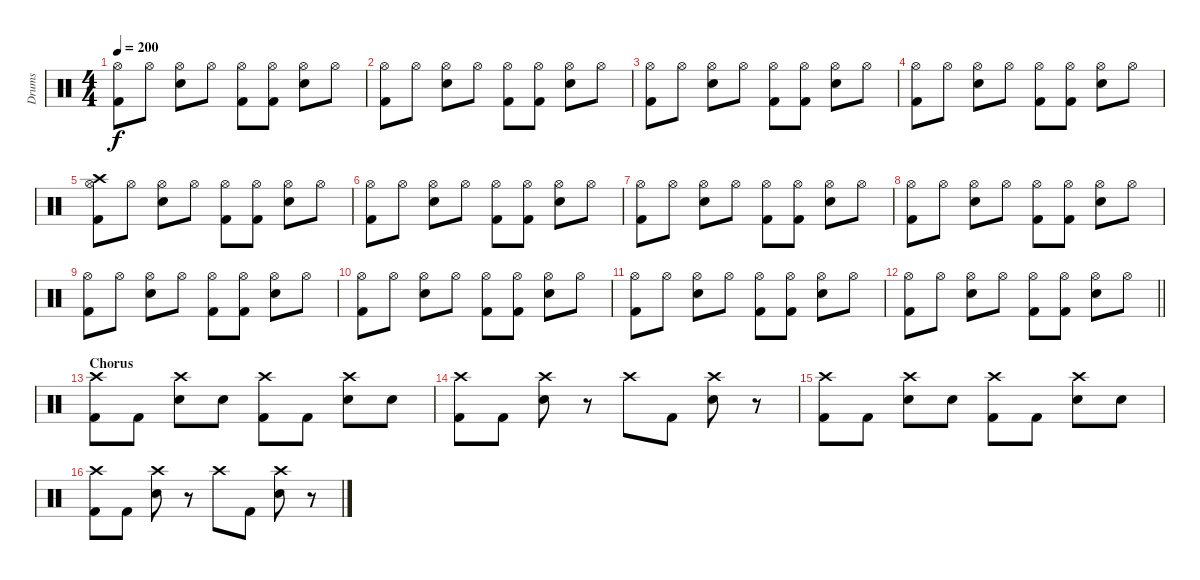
\track ("Drums" "Drums") {instrument percussion}
\staff {score}
\articulation defaults
\ts (4 4)
\tempo 200
\clef neutral
\ks c
("Hi-Hat (open)" "Kick (hit) 2").8{dy f} "Hi-Hat (open)".8 ("Hi-Hat (open)" "Electric Snare (hit)").8 "Hi-Hat (open)".8 ("Hi-Hat (open)" "Kick (hit) 2").8 ("Hi-Hat (open)" "Kick (hit) 2").8 ("Hi-Hat (open)" "Electric Snare (hit)").8 "Hi-Hat (open)".8 |
("Hi-Hat (open)" "Kick (hit) 2").8 "Hi-Hat (open)".8 ("Hi-Hat (open)" "Electric Snare (hit)").8 "Hi-Hat (open)".8 ("Hi-Hat (open)" "Kick (hit) 2").8 ("Hi-Hat (open)" "Kick (hit) 2").8 ("Hi-Hat (open)" "Electric Snare (hit)").8 "Hi-Hat (open)".8 |
("Hi-Hat (open)" "Kick (hit) 2").8 "Hi-Hat (open)".8 ("Hi-Hat (open)" "Electric Snare (hit)").8 "Hi-Hat (open)".8 ("Hi-Hat (open)" "Kick (hit) 2").8 ("Hi-Hat (open)" "Kick (hit) 2").8 ("Hi-Hat (open)" "Electric Snare (hit)").8 "Hi-Hat (open)".8 |
("Hi-Hat (open)" "Kick (hit) 2").8 "Hi-Hat (open)".8 ("Hi-Hat (open)" "Electric Snare (hit)").8 "Hi-Hat (open)".8 ("Hi-Hat (open)" "Kick (hit) 2").8 ("Hi-Hat (open)" "Kick (hit) 2").8 ("Hi-Hat (open)" "Electric Snare (hit)").8 "Hi-Hat (open)".8 |
("Hi-Hat (open)" "Crash high (hit)" "Kick (hit) 2").8 "Hi-Hat (open)".8 ("Hi-Hat (open)" "Electric Snare (hit)").8 "Hi-Hat (open)".8 ("Hi-Hat (open)" "Kick (hit) 2").8 ("Hi-Hat (open)" "Kick (hit) 2").8 ("Hi-Hat (open)" "Electric Snare (hit)").8 "Hi-Hat (open)".8 |
("Hi-Hat (open)" "Kick (hit) 2").8 "Hi-Hat (open)".8 ("Hi-Hat (open)" "Electric Snare (hit)").8 "Hi-Hat (open)".8 ("Hi-Hat (open)" "Kick (hit) 2").8 ("Hi-Hat (open)" "Kick (hit) 2").8 ("Hi-Hat (open)" "Electric Snare (hit)").8 "Hi-Hat (open)".8 |
("Hi-Hat (open)" "Kick (hit) 2").8 "Hi-Hat (open)".8 ("Hi-Hat (open)" "Electric Snare (hit)").8 "Hi-Hat (open)".8 ("Hi-Hat (open)" "Kick (hit) 2").8 ("Hi-Hat (open)" "Kick (hit) 2").8 ("Hi-Hat (open)" "Electric Snare (hit)").8 "Hi-Hat (open)".8 |
("Hi-Hat (open)" "Kick (hit) 2").8 "Hi-Hat (open)".8 ("Hi-Hat (open)" "Electric Snare (hit)").8 "Hi-Hat (open)".8 ("Hi-Hat (open)" "Kick (hit) 2").8 ("Hi-Hat (open)" "Kick (hit) 2").8 ("Hi-Hat (open)" "Electric Snare (hit)").8 "Hi-Hat (open)".8 |
("Hi-Hat (open)" "Kick (hit) 2").8 "Hi-Hat (open)".8 ("Hi-Hat (open)" "Electric Snare (hit)").8 "Hi-Hat (open)".8 ("Hi-Hat (open)" "Kick (hit) 2").8 ("Hi-Hat (open)" "Kick (hit) 2").8 ("Hi-Hat (open)" "Electric Snare (hit)").8 "Hi-Hat (open)".8 |
("Hi-Hat (open)" "Kick (hit) 2").8 "Hi-Hat (open)".8 ("Hi-Hat (open)" "Electric Snare (hit)").8 "Hi-Hat (open)".8 ("Hi-Hat (open)" "Kick (hit) 2").8 ("Hi-Hat (open)" "Kick (hit) 2").8 ("Hi-Hat (open)" "Electric Snare (hit)").8 "Hi-Hat (open)".8 |
("Hi-Hat (open)" "Kick (hit) 2").8 "Hi-Hat (open)".8 ("Hi-Hat (open)" "Electric Snare (hit)").8 "Hi-Hat (open)".8 ("Hi-Hat (open)" "Kick (hit) 2").8 ("Hi-Hat (open)" "Kick (hit) 2").8 ("Hi-Hat (open)" "Electric Snare (hit)").8 "Hi-Hat (open)".8 |
\barLineRight lightlight
("Hi-Hat (open)" "Kick (hit) 2").8 "Hi-Hat (open)".8 ("Hi-Hat (open)" "Electric Snare (hit)").8 "Hi-Hat (open)".8 ("Hi-Hat (open)" "Kick (hit) 2").8 ("Hi-Hat (open)" "Kick (hit) 2").8 ("Hi-Hat (open)" "Electric Snare (hit)").8 "Hi-Hat (open)".8 |
\section ("" "Chorus")
("Crash high (hit)" "Kick (hit) 2").8 "Kick (hit) 2".8 ("Crash high (hit)" "Electric Snare (hit)").8 "Electric Snare (hit)".8 ("Crash high (hit)" "Kick (hit) 2").8 "Kick (hit) 2".8 ("Crash high (hit)" "Electric Snare (hit)").8 "Electric Snare (hit)".8 |
("Crash high (hit)" "Kick (hit) 2").8 "Kick (hit) 2".8 ("Crash high (hit)" "Electric Snare (hit)").8 r.8 "Crash high (hit)".8 "Kick (hit) 2".8 ("Crash high (hit)" "Electric Snare (hit)").8 r.8 |
("Crash high (hit)" "Kick (hit) 2").8 "Kick (hit) 2".8 ("Crash high (hit)" "Electric Snare (hit)").8 "Electric Snare (hit)".8 ("Crash high (hit)" "Kick (hit) 2").8 "Kick (hit) 2".8 ("Crash high (hit)" "Electric Snare (hit)").8 "Electric Snare (hit)".8 |
("Crash high (hit)" "Kick (hit) 2").8 "Kick (hit) 2".8 ("Crash high (hit)" "Electric Snare (hit)").8 r.8 "Crash high (hit)".8 "Kick (hit) 2".8 ("Crash high (hit)" "Electric Snare (hit)").8 r.8
